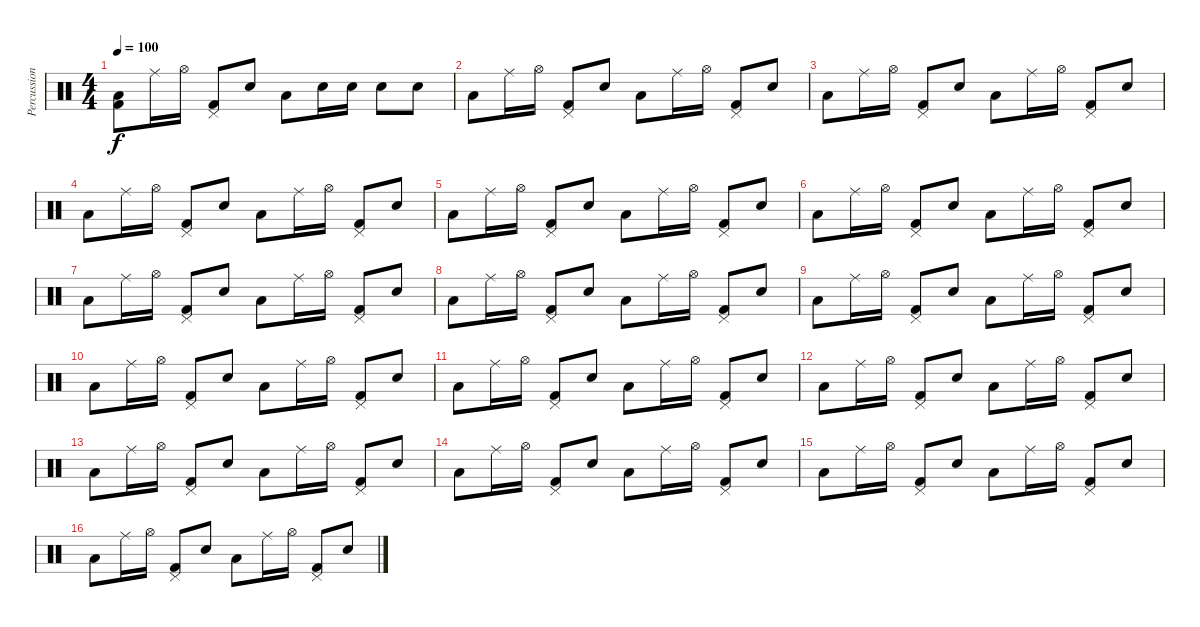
\track ("Percussion" "Percussion") {instrument percussion}
\staff {score}
\articulation defaults
\ts (4 4)
\tempo 100
\clef neutral
\ks c
("Low Tom (hit)" "Kick (hit) 2").8{dy f} "Ride (middle)".16 "Hi-Hat (open)".16 ("Pedal Hi-Hat (hit)" "Kick (hit) 2").8 "Electric Snare (hit)".8 "Low Tom (hit)".8 "Electric Snare (hit)".16 "Electric Snare (hit)".16 "Electric Snare (hit)".8 "Electric Snare (hit)".8 |
"Low Tom (hit)".8 "Ride (middle)".16 "Hi-Hat (open)".16 ("Pedal Hi-Hat (hit)" "Kick (hit) 2").8 "Electric Snare (hit)".8 "Low Tom (hit)".8 "Ride (middle)".16 "Hi-Hat (open)".16 ("Pedal Hi-Hat (hit)" "Kick (hit) 2").8 "Electric Snare (hit)".8 |
"Low Tom (hit)".8 "Ride (middle)".16 "Hi-Hat (open)".16 ("Pedal Hi-Hat (hit)" "Kick (hit) 2").8 "Electric Snare (hit)".8 "Low Tom (hit)".8 "Ride (middle)".16 "Hi-Hat (open)".16 ("Pedal Hi-Hat (hit)" "Kick (hit) 2").8 "Electric Snare (hit)".8 |
"Low Tom (hit)".8 "Ride (middle)".16 "Hi-Hat (open)".16 ("Pedal Hi-Hat (hit)" "Kick (hit) 2").8 "Electric Snare (hit)".8 "Low Tom (hit)".8 "Ride (middle)".16 "Hi-Hat (open)".16 ("Pedal Hi-Hat (hit)" "Kick (hit) 2").8 "Electric Snare (hit)".8 |
"Low Tom (hit)".8 "Ride (middle)".16 "Hi-Hat (open)".16 ("Pedal Hi-Hat (hit)" "Kick (hit) 2").8 "Electric Snare (hit)".8 "Low Tom (hit)".8 "Ride (middle)".16 "Hi-Hat (open)".16 ("Pedal Hi-Hat (hit)" "Kick (hit) 2").8 "Electric Snare (hit)".8 |
"Low Tom (hit)".8 "Ride (middle)".16 "Hi-Hat (open)".16 ("Pedal Hi-Hat (hit)" "Kick (hit) 2").8 "Electric Snare (hit)".8 "Low Tom (hit)".8 "Ride (middle)".16 "Hi-Hat (open)".16 ("Pedal Hi-Hat (hit)" "Kick (hit) 2").8 "Electric Snare (hit)".8 |
"Low Tom (hit)".8 "Ride (middle)".16 "Hi-Hat (open)".16 ("Pedal Hi-Hat (hit)" "Kick (hit) 2").8 "Electric Snare (hit)".8 "Low Tom (hit)".8 "Ride (middle)".16 "Hi-Hat (open)".16 ("Pedal Hi-Hat (hit)" "Kick (hit) 2").8 "Electric Snare (hit)".8 |
"Low Tom (hit)".8 "Ride (middle)".16 "Hi-Hat (open)".16 ("Pedal Hi-Hat (hit)" "Kick (hit) 2").8 "Electric Snare (hit)".8 "Low Tom (hit)".8 "Ride (middle)".16 "Hi-Hat (open)".16 ("Pedal Hi-Hat (hit)" "Kick (hit) 2").8 "Electric Snare (hit)".8 |
"Low Tom (hit)".8 "Ride (middle)".16 "Hi-Hat (open)".16 ("Pedal Hi-Hat (hit)" "Kick (hit) 2").8 "Electric Snare (hit)".8 "Low Tom (hit)".8 "Ride (middle)".16 "Hi-Hat (open)".16 ("Pedal Hi-Hat (hit)" "Kick (hit) 2").8 "Electric Snare (hit)".8 |
"Low Tom (hit)".8 "Ride (middle)".16 "Hi-Hat (open)".16 ("Pedal Hi-Hat (hit)" "Kick (hit) 2").8 "Electric Snare (hit)".8 "Low Tom (hit)".8 "Ride (middle)".16 "Hi-Hat (open)".16 ("Pedal Hi-Hat (hit)" "Kick (hit) 2").8 "Electric Snare (hit)".8 |
"Low Tom (hit)".8 "Ride (middle)".16 "Hi-Hat (open)".16 ("Pedal Hi-Hat (hit)" "Kick (hit) 2").8 "Electric Snare (hit)".8 "Low Tom (hit)".8 "Ride (middle)".16 "Hi-Hat (open)".16 ("Pedal Hi-Hat (hit)" "Kick (hit) 2").8 "Electric Snare (hit)".8 |
"Low Tom (hit)".8 "Ride (middle)".16 "Hi-Hat (open)".16 ("Pedal Hi-Hat (hit)" "Kick (hit) 2").8 "Electric Snare (hit)".8 "Low Tom (hit)".8 "Ride (middle)".16 "Hi-Hat (open)".16 ("Pedal Hi-Hat (hit)" "Kick (hit) 2").8 "Electric Snare (hit)".8 |
"Low Tom (hit)".8 "Ride (middle)".16 "Hi-Hat (open)".16 ("Pedal Hi-Hat (hit)" "Kick (hit) 2").8 "Electric Snare (hit)".8 "Low Tom (hit)".8 "Ride (middle)".16 "Hi-Hat (open)".16 ("Pedal Hi-Hat (hit)" "Kick (hit) 2").8 "Electric Snare (hit)".8 |
"Low Tom (hit)".8 "Ride (middle)".16 "Hi-Hat (open)".16 ("Pedal Hi-Hat (hit)" "Kick (hit) 2").8 "Electric Snare (hit)".8 "Low Tom (hit)".8 "Ride (middle)".16 "Hi-Hat (open)".16 ("Pedal Hi-Hat (hit)" "Kick (hit) 2").8 "Electric Snare (hit)".8 |
"Low Tom (hit)".8 "Ride (middle)".16 "Hi-Hat (open)".16 ("Pedal Hi-Hat (hit)" "Kick (hit) 2").8 "Electric Snare (hit)".8 "Low Tom (hit)".8 "Ride (middle)".16 "Hi-Hat (open)".16 ("Pedal Hi-Hat (hit)" "Kick (hit) 2").8 "Electric Snare (hit)".8 |
"Low Tom (hit)".8 "Ride (middle)".16 "Hi-Hat (open)".16 ("Pedal Hi-Hat (hit)" "Kick (hit) 2").8 "Electric Snare (hit)".8 "Low Tom (hit)".8 "Ride (middle)".16 "Hi-Hat (open)".16 ("Pedal Hi-Hat (hit)" "Kick (hit) 2").8 "Electric Snare (hit)".8
